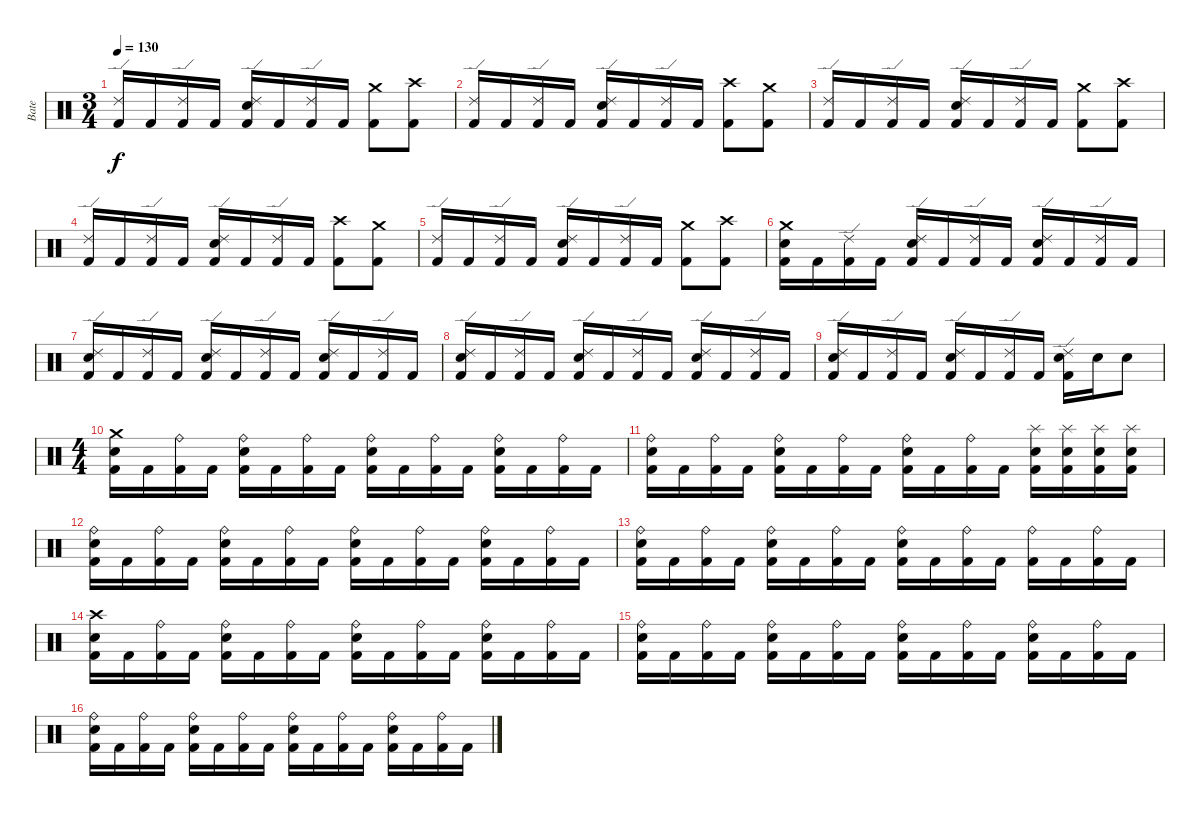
\track ("Bate" "Bate") {instrument percussion}
\staff {score}
\articulation defaults
\ts (3 4)
\tempo 130
\clef neutral
\ks c
("Ride (edge) 2" "Kick (hit) 2").16{dy f} "Kick (hit) 2".16 ("Ride (edge) 2" "Kick (hit) 2").16 "Kick (hit) 2".16 ("Ride (edge) 2" "Snare (hit) 2" "Kick (hit) 2").16 "Kick (hit) 2".16 ("Ride (edge) 2" "Kick (hit) 2").16 "Kick (hit) 2".16 ("Crash medium (hit)" "Kick (hit) 2").8 ("Crash high (hit)" "Kick (hit) 2").8 |
("Ride (edge) 2" "Kick (hit) 2").16 "Kick (hit) 2".16 ("Ride (edge) 2" "Kick (hit) 2").16 "Kick (hit) 2".16 ("Ride (edge) 2" "Snare (hit) 2" "Kick (hit) 2").16 "Kick (hit) 2".16 ("Ride (edge) 2" "Kick (hit) 2").16 "Kick (hit) 2".16 ("Crash high (hit)" "Kick (hit) 2").8 ("Crash medium (hit)" "Kick (hit) 2").8 |
("Ride (edge) 2" "Kick (hit) 2").16 "Kick (hit) 2".16 ("Ride (edge) 2" "Kick (hit) 2").16 "Kick (hit) 2".16 ("Ride (edge) 2" "Snare (hit) 2" "Kick (hit) 2").16 "Kick (hit) 2".16 ("Ride (edge) 2" "Kick (hit) 2").16 "Kick (hit) 2".16 ("Crash medium (hit)" "Kick (hit) 2").8 ("Crash high (hit)" "Kick (hit) 2").8 |
("Ride (edge) 2" "Kick (hit) 2").16 "Kick (hit) 2".16 ("Ride (edge) 2" "Kick (hit) 2").16 "Kick (hit) 2".16 ("Ride (edge) 2" "Snare (hit) 2" "Kick (hit) 2").16 "Kick (hit) 2".16 ("Ride (edge) 2" "Kick (hit) 2").16 "Kick (hit) 2".16 ("Crash high (hit)" "Kick (hit) 2").8 ("Crash medium (hit)" "Kick (hit) 2").8 |
("Ride (edge) 2" "Kick (hit) 2").16 "Kick (hit) 2".16 ("Ride (edge) 2" "Kick (hit) 2").16 "Kick (hit) 2".16 ("Ride (edge) 2" "Snare (hit) 2" "Kick (hit) 2").16 "Kick (hit) 2".16 ("Ride (edge) 2" "Kick (hit) 2").16 "Kick (hit) 2".16 ("Crash medium (hit)" "Kick (hit) 2").8 ("Crash high (hit)" "Kick (hit) 2").8 |
("Crash medium (hit)" "Snare (hit) 2" "Kick (hit) 2").16 "Kick (hit) 2".16 ("Ride (edge) 2" "Kick (hit) 2").16 "Kick (hit) 2".16 ("Ride (edge) 2" "Snare (hit) 2" "Kick (hit) 2").16 "Kick (hit) 2".16 ("Ride (edge) 2" "Kick (hit) 2").16 "Kick (hit) 2".16 ("Ride (edge) 2" "Snare (hit) 2" "Kick (hit) 2").16 "Kick (hit) 2".16 ("Ride (edge) 2" "Kick (hit) 2").16 "Kick (hit) 2".16 |
("Ride (edge) 2" "Snare (hit) 2" "Kick (hit) 2").16 "Kick (hit) 2".16 ("Ride (edge) 2" "Kick (hit) 2").16 "Kick (hit) 2".16 ("Ride (edge) 2" "Snare (hit) 2" "Kick (hit) 2").16 "Kick (hit) 2".16 ("Ride (edge) 2" "Kick (hit) 2").16 "Kick (hit) 2".16 ("Ride (edge) 2" "Snare (hit) 2" "Kick (hit) 2").16 "Kick (hit) 2".16 ("Ride (edge) 2" "Kick (hit) 2").16 "Kick (hit) 2".16 |
("Ride (edge) 2" "Snare (hit) 2" "Kick (hit) 2").16 "Kick (hit) 2".16 ("Ride (edge) 2" "Kick (hit) 2").16 "Kick (hit) 2".16 ("Ride (edge) 2" "Snare (hit) 2" "Kick (hit) 2").16 "Kick (hit) 2".16 ("Ride (edge) 2" "Kick (hit) 2").16 "Kick (hit) 2".16 ("Ride (edge) 2" "Snare (hit) 2" "Kick (hit) 2").16 "Kick (hit) 2".16 ("Ride (edge) 2" "Kick (hit) 2").16 "Kick (hit) 2".16 |
("Ride (edge) 2" "Snare (hit) 2" "Kick (hit) 2").16 "Kick (hit) 2".16 ("Ride (edge) 2" "Kick (hit) 2").16 "Kick (hit) 2".16 ("Ride (edge) 2" "Snare (hit) 2" "Kick (hit) 2").16 "Kick (hit) 2".16 ("Ride (edge) 2" "Kick (hit) 2").16 "Kick (hit) 2".16 ("Ride (edge) 2" "Snare (hit) 2" "Kick (hit) 2").16 "Snare (hit) 2".16 "Snare (hit) 2".8 |
\ts (4 4)
("Crash medium (hit)" "Snare (hit) 2" "Kick (hit) 2").16 "Kick (hit) 2".16 ("Ride (bell)" "Kick (hit) 2").16 "Kick (hit) 2".16 ("Ride (bell)" "Snare (hit) 2" "Kick (hit) 2").16 "Kick (hit) 2".16 ("Ride (bell)" "Kick (hit) 2").16 "Kick (hit) 2".16 ("Ride (bell)" "Snare (hit) 2" "Kick (hit) 2").16 "Kick (hit) 2".16 ("Ride (bell)" "Kick (hit) 2").16 "Kick (hit) 2".16 ("Ride (bell)" "Snare (hit) 2" "Kick (hit) 2").16 "Kick (hit) 2".16 ("Ride (bell)" "Kick (hit) 2").16 "Kick (hit) 2".16 |
("Ride (bell)" "Snare (hit) 2" "Kick (hit) 2").16 "Kick (hit) 2".16 ("Ride (bell)" "Kick (hit) 2").16 "Kick (hit) 2".16 ("Ride (bell)" "Snare (hit) 2" "Kick (hit) 2").16 "Kick (hit) 2".16 ("Ride (bell)" "Kick (hit) 2").16 "Kick (hit) 2".16 ("Ride (bell)" "Snare (hit) 2" "Kick (hit) 2").16 "Kick (hit) 2".16 ("Ride (bell)" "Kick (hit) 2").16 "Kick (hit) 2".16 ("Splash (hit)" "Snare (hit) 2" "Kick (hit) 2").16 ("Splash (hit)" "Snare (hit) 2" "Kick (hit) 2").16 ("Splash (hit)" "Snare (hit) 2" "Kick (hit) 2").16 ("Splash (hit)" "Snare (hit) 2" "Kick (hit) 2").16 |
("Ride (bell)" "Snare (hit) 2" "Kick (hit) 2").16 "Kick (hit) 2".16 ("Ride (bell)" "Kick (hit) 2").16 "Kick (hit) 2".16 ("Ride (bell)" "Snare (hit) 2" "Kick (hit) 2").16 "Kick (hit) 2".16 ("Ride (bell)" "Kick (hit) 2").16 "Kick (hit) 2".16 ("Ride (bell)" "Snare (hit) 2" "Kick (hit) 2").16 "Kick (hit) 2".16 ("Ride (bell)" "Kick (hit) 2").16 "Kick (hit) 2".16 ("Ride (bell)" "Snare (hit) 2" "Kick (hit) 2").16 "Kick (hit) 2".16 ("Ride (bell)" "Kick (hit) 2").16 "Kick (hit) 2".16 |
("Ride (bell)" "Snare (hit) 2" "Kick (hit) 2").16 "Kick (hit) 2".16 ("Ride (bell)" "Kick (hit) 2").16 "Kick (hit) 2".16 ("Ride (bell)" "Snare (hit) 2" "Kick (hit) 2").16 "Kick (hit) 2".16 ("Ride (bell)" "Kick (hit) 2").16 "Kick (hit) 2".16 ("Ride (bell)" "Snare (hit) 2" "Kick (hit) 2").16 "Kick (hit) 2".16 ("Ride (bell)" "Kick (hit) 2").16 "Kick (hit) 2".16 ("Ride (bell)" "Kick (hit) 2").16 "Kick (hit) 2".16 ("Ride (bell)" "Kick (hit) 2").16 "Kick (hit) 2".16 |
("Crash high (hit)" "Snare (hit) 2" "Kick (hit) 2").16 "Kick (hit) 2".16 ("Ride (bell)" "Kick (hit) 2").16 "Kick (hit) 2".16 ("Ride (bell)" "Snare (hit) 2" "Kick (hit) 2").16 "Kick (hit) 2".16 ("Ride (bell)" "Kick (hit) 2").16 "Kick (hit) 2".16 ("Ride (bell)" "Snare (hit) 2" "Kick (hit) 2").16 "Kick (hit) 2".16 ("Ride (bell)" "Kick (hit) 2").16 "Kick (hit) 2".16 ("Ride (bell)" "Snare (hit) 2" "Kick (hit) 2").16 "Kick (hit) 2".16 ("Ride (bell)" "Kick (hit) 2").16 "Kick (hit) 2".16 |
("Ride (bell)" "Snare (hit) 2" "Kick (hit) 2").16 "Kick (hit) 2".16 ("Ride (bell)" "Kick (hit) 2").16 "Kick (hit) 2".16 ("Ride (bell)" "Snare (hit) 2" "Kick (hit) 2").16 "Kick (hit) 2".16 ("Ride (bell)" "Kick (hit) 2").16 "Kick (hit) 2".16 ("Ride (bell)" "Snare (hit) 2" "Kick (hit) 2").16 "Kick (hit) 2".16 ("Ride (bell)" "Kick (hit) 2").16 "Kick (hit) 2".16 ("Ride (bell)" "Snare (hit) 2" "Kick (hit) 2").16 "Kick (hit) 2".16 ("Ride (bell)" "Kick (hit) 2").16 "Kick (hit) 2".16 |
("Ride (bell)" "Snare (hit) 2" "Kick (hit) 2").16 "Kick (hit) 2".16 ("Ride (bell)" "Kick (hit) 2").16 "Kick (hit) 2".16 ("Ride (bell)" "Snare (hit) 2" "Kick (hit) 2").16 "Kick (hit) 2".16 ("Ride (bell)" "Kick (hit) 2").16 "Kick (hit) 2".16 ("Ride (bell)" "Snare (hit) 2" "Kick (hit) 2").16 "Kick (hit) 2".16 ("Ride (bell)" "Kick (hit) 2").16 "Kick (hit) 2".16 ("Ride (bell)" "Snare (hit) 2" "Kick (hit) 2").16 "Kick (hit) 2".16 ("Ride (bell)" "Kick (hit) 2").16 "Kick (hit) 2".16
